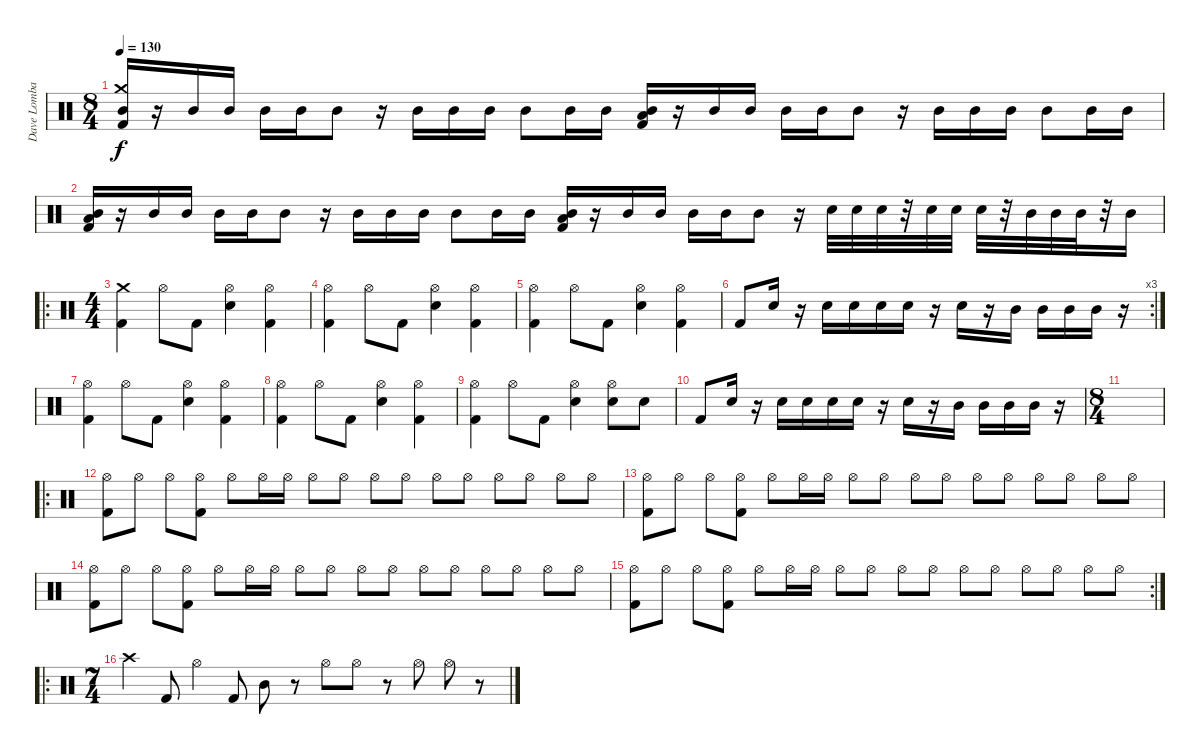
\track ("Dave Lombardo" "Dave Lomba") {instrument percussion}
\staff {score}
\articulation defaults
\ts (8 4)
\tempo 130
\clef neutral
\ks c
("Mid Tom (hit)" "Crash medium (hit)" "Kick (hit) 2").16{dy f} r.16 "Mid Tom (hit)".16 "Mid Tom (hit)".16 "Mid Tom (hit)".16 "Mid Tom (hit)".16 "Mid Tom (hit)".8 r.16 "Mid Tom (hit)".16 "Mid Tom (hit)".16 "Mid Tom (hit)".16 "Mid Tom (hit)".8 "Mid Tom (hit)".16 "Mid Tom (hit)".16 ("Mid Tom (hit)" "Low Tom (hit)" "Kick (hit) 2").16 r.16 "Mid Tom (hit)".16 "Mid Tom (hit)".16 "Mid Tom (hit)".16 "Mid Tom (hit)".16 "Mid Tom (hit)".8 r.16 "Mid Tom (hit)".16 "Mid Tom (hit)".16 "Mid Tom (hit)".16 "Mid Tom (hit)".8 "Mid Tom (hit)".16 "Mid Tom (hit)".16 |
("Mid Tom (hit)" "Low Tom (hit)" "Kick (hit) 2").16 r.16 "Mid Tom (hit)".16 "Mid Tom (hit)".16 "Mid Tom (hit)".16 "Mid Tom (hit)".16 "Mid Tom (hit)".8 r.16 "Mid Tom (hit)".16 "Mid Tom (hit)".16 "Mid Tom (hit)".16 "Mid Tom (hit)".8 "Mid Tom (hit)".16 "Mid Tom (hit)".16 ("Mid Tom (hit)" "Low Tom (hit)" "Kick (hit) 2").16 r.16 "Mid Tom (hit)".16 "Mid Tom (hit)".16 "Mid Tom (hit)".16 "Mid Tom (hit)".16 "Mid Tom (hit)".8 r.16 "Electric Snare (hit)".32 "Electric Snare (hit)".32 "Electric Snare (hit)".32 r.32 "Snare (hit) 2".32 "Snare (hit) 2".32 "Snare (hit) 2".32 r.32 "Mid Tom (hit)".32 "Mid Tom (hit)".32 "Mid Tom (hit)".32 r.32 "Mid Tom (hit)".16 |
\ro
\ts (4 4)
("Crash medium (hit)" "Kick (hit) 2").4 "Hi-Hat (open)".8 "Kick (hit) 2".8 ("Electric Snare (hit)" "Hi-Hat (open)").4 ("Kick (hit) 2" "Hi-Hat (open)").4 |
("Kick (hit) 2" "Hi-Hat (open)").4 "Hi-Hat (open)".8 "Kick (hit) 2".8 ("Electric Snare (hit)" "Hi-Hat (open)").4 ("Kick (hit) 2" "Hi-Hat (open)").4 |
("Kick (hit) 2" "Hi-Hat (open)").4 "Hi-Hat (open)".8 "Kick (hit) 2".8 ("Electric Snare (hit)" "Hi-Hat (open)").4 ("Kick (hit) 2" "Hi-Hat (open)").4 |
\rc 3 "Kick (hit) 2".8 "Electric Snare (hit)".16
r.16 "Snare (hit) 2".16 "Snare (hit) 2".16 "Snare (hit) 2".16 "Snare (hit) 2".16 r.16 "Snare (hit) 2".16 r.16 "Mid Tom (hit)".16 "Mid Tom (hit)".16 "Mid Tom (hit)".16 "Mid Tom (hit)".16 r.16 |
("Kick (hit) 2" "Hi-Hat (open)").4 "Hi-Hat (open)".8 "Kick (hit) 2".8 ("Electric Snare (hit)" "Hi-Hat (open)").4 ("Kick (hit) 2" "Hi-Hat (open)").4 |
("Kick (hit) 2" "Hi-Hat (open)").4 "Hi-Hat (open)".8 "Kick (hit) 2".8 ("Electric Snare (hit)" "Hi-Hat (open)").4 ("Kick (hit) 2" "Hi-Hat (open)").4 |
("Kick (hit) 2" "Hi-Hat (open)").4 "Hi-Hat (open)".8 "Kick (hit) 2".8 ("Electric Snare (hit)" "Hi-Hat (open)").4 ("Electric Snare (hit)" "Hi-Hat (open)").8 "Electric Snare (hit)".8 |
"Kick (hit) 2".8 "Electric Snare (hit)".16 r.16 "Snare (hit) 2".16 "Snare (hit) 2".16 "Snare (hit) 2".16 "Snare (hit) 2".16 r.16 "Snare (hit) 2".16 r.16 "Mid Tom (hit)".16 "Mid Tom (hit)".16 "Mid Tom (hit)".16 "Mid Tom (hit)".16 r.16 |
\ts (8 4)
|
\ro
("Kick (hit) 2" "Hi-Hat (open)").8 "Hi-Hat (open)".8 "Hi-Hat (open)".8 ("Kick (hit) 2" "Hi-Hat (open)").8 "Hi-Hat (open)".8 "Hi-Hat (open)".16 "Hi-Hat (open)".16 "Hi-Hat (open)".8 "Hi-Hat (open)".8 "Hi-Hat (open)".8 "Hi-Hat (open)".8 "Hi-Hat (open)".8 "Hi-Hat (open)".8 "Hi-Hat (open)".8 "Hi-Hat (open)".8 "Hi-Hat (open)".8 "Hi-Hat (open)".8 |
("Kick (hit) 2" "Hi-Hat (open)").8 "Hi-Hat (open)".8 "Hi-Hat (open)".8 ("Kick (hit) 2" "Hi-Hat (open)").8 "Hi-Hat (open)".8 "Hi-Hat (open)".16 "Hi-Hat (open)".16 "Hi-Hat (open)".8 "Hi-Hat (open)".8 "Hi-Hat (open)".8 "Hi-Hat (open)".8 "Hi-Hat (open)".8 "Hi-Hat (open)".8 "Hi-Hat (open)".8 "Hi-Hat (open)".8 "Hi-Hat (open)".8 "Hi-Hat (open)".8 |
("Kick (hit) 2" "Hi-Hat (open)").8 "Hi-Hat (open)".8 "Hi-Hat (open)".8 ("Kick (hit) 2" "Hi-Hat (open)").8 "Hi-Hat (open)".8 "Hi-Hat (open)".16 "Hi-Hat (open)".16 "Hi-Hat (open)".8 "Hi-Hat (open)".8 "Hi-Hat (open)".8 "Hi-Hat (open)".8 "Hi-Hat (open)".8 "Hi-Hat (open)".8 "Hi-Hat (open)".8 "Hi-Hat (open)".8 "Hi-Hat (open)".8 "Hi-Hat (open)".8 |
\rc 2
("Kick (hit) 2" "Hi-Hat (open)").8 "Hi-Hat (open)".8 "Hi-Hat (open)".8 ("Kick (hit) 2" "Hi-Hat (open)").8 "Hi-Hat (open)".8 "Hi-Hat (open)".16 "Hi-Hat (open)".16 "Hi-Hat (open)".8 "Hi-Hat (open)".8 "Hi-Hat (open)".8 "Hi-Hat (open)".8 "Hi-Hat (open)".8 "Hi-Hat (open)".8 "Hi-Hat (open)".8 "Hi-Hat (open)".8 "Hi-Hat (open)".8 "Hi-Hat (open)".8 |
\ro
\ts (7 4)
"Crash high (hit)".4 "Kick (hit) 2".8 "Hi-Hat (open)".4 "Kick (hit) 2".8 "Mid Tom (hit)".8 r.8 "Hi-Hat (open)".8 "Hi-Hat (open)".8 r.8 "Hi-Hat (open)".8 "Hi-Hat (open)".8 r.8
